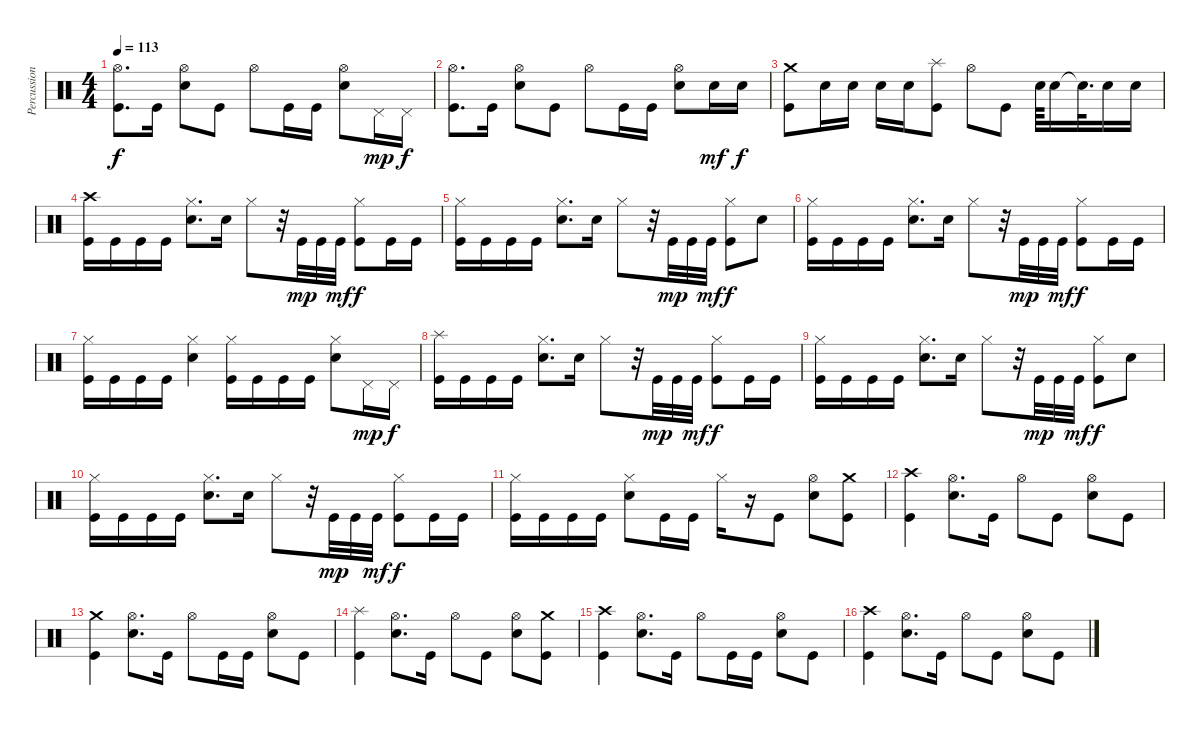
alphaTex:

\track ("Percussioni" "Percussion") {instrument percussion}
\staff {score}
\articulation defaults
\ts (4 4)
\tempo 113
\clef neutral
\ks c
("Hi-Hat (open)" "Kick (hit)").8{d dy f} "Kick (hit)".16 ("Hi-Hat (open)" "Snare (hit) 2").8 "Kick (hit)".8 "Hi-Hat (open)".8 "Kick (hit)".16 "Kick (hit)".16 ("Hi-Hat (open)" "Snare (hit) 2").8 "Pedal Hi-Hat (hit)".16{dy mp} "Pedal Hi-Hat (hit)".16{dy f} |
("Hi-Hat (open)" "Kick (hit)").8{d} "Kick (hit)".16 ("Hi-Hat (open)" "Snare (hit) 2").8 "Kick (hit)".8 "Hi-Hat (open)".8 "Kick (hit)".16 "Kick (hit)".16 ("Hi-Hat (open)" "Snare (hit) 2").8 "Snare (hit) 2".16{dy mf} "Snare (hit) 2".16{dy f} |
("Crash medium (hit)" "Kick (hit)").8 "Snare (hit) 2".16 "Snare (hit) 2".16 "Snare (hit) 2".16 "Snare (hit) 2".16 ("Splash (hit)" "Kick (hit)").8 "Hi-Hat (open)".8 "Kick (hit)".8 "Snare (hit) 2".64 "Snare (hit) 2".16 "Snare (hit)"{t}.32{d} "Snare (hit) 2".16 "Snare (hit) 2".16 |
("Crash high (hit)" "Kick (hit)").16 "Kick (hit)".16 "Kick (hit)".16 "Kick (hit)".16 ("Hi-Hat (closed)" "Snare (hit) 2").8{d} "Snare (hit) 2".16 "Hi-Hat (closed)".8 r.32 "Kick (hit)".32{dy mp} "Kick (hit)".32 "Kick (hit)".32{dy mf} ("Hi-Hat (closed)" "Kick (hit)").8{dy f} "Kick (hit)".16 "Kick (hit)".16 |
("Hi-Hat (closed)" "Kick (hit)").16 "Kick (hit)".16 "Kick (hit)".16 "Kick (hit)".16 ("Hi-Hat (closed)" "Snare (hit) 2").8{d} "Snare (hit) 2".16 "Hi-Hat (closed)".8 r.32 "Kick (hit)".32{dy mp} "Kick (hit)".32 "Kick (hit)".32{dy mf} ("Hi-Hat (closed)" "Kick (hit)").8{dy f} "Snare (hit) 2".8 |
("Hi-Hat (closed)" "Kick (hit)").16 "Kick (hit)".16 "Kick (hit)".16 "Kick (hit)".16 ("Hi-Hat (closed)" "Snare (hit) 2").8{d} "Snare (hit) 2".16 "Hi-Hat (closed)".8 r.32 "Kick (hit)".32{dy mp} "Kick (hit)".32 "Kick (hit)".32{dy mf} ("Hi-Hat (closed)" "Kick (hit)").8{dy f} "Kick (hit)".16 "Kick (hit)".16 |
("Hi-Hat (closed)" "Kick (hit)").16 "Kick (hit)".16 "Kick (hit)".16 "Kick (hit)".16 ("Hi-Hat (closed)" "Snare (hit) 2").4 ("Hi-Hat (closed)" "Kick (hit)").16 "Kick (hit)".16 "Kick (hit)".16 "Kick (hit)".16 ("Hi-Hat (closed)" "Snare (hit) 2").8 "Pedal Hi-Hat (hit)".16{dy mp} "Pedal Hi-Hat (hit)".16{dy f} |
("Splash (hit)" "Kick (hit)").16 "Kick (hit)".16 "Kick (hit)".16 "Kick (hit)".16 ("Hi-Hat (closed)" "Snare (hit) 2").8{d} "Snare (hit) 2".16 "Hi-Hat (closed)".8 r.32 "Kick (hit)".32{dy mp} "Kick (hit)".32 "Kick (hit)".32{dy mf} ("Hi-Hat (closed)" "Kick (hit)").8{dy f} "Kick (hit)".16 "Kick (hit)".16 |
("Hi-Hat (closed)" "Kick (hit)").16 "Kick (hit)".16 "Kick (hit)".16 "Kick (hit)".16 ("Hi-Hat (closed)" "Snare (hit) 2").8{d} "Snare (hit) 2".16 "Hi-Hat (closed)".8 r.32 "Kick (hit)".32{dy mp} "Kick (hit)".32 "Kick (hit)".32{dy mf} ("Hi-Hat (closed)" "Kick (hit)").8{dy f} "Snare (hit) 2".8 |
("Hi-Hat (closed)" "Kick (hit)").16 "Kick (hit)".16 "Kick (hit)".16 "Kick (hit)".16 ("Hi-Hat (closed)" "Snare (hit) 2").8{d} "Snare (hit) 2".16 "Hi-Hat (closed)".8 r.32 "Kick (hit)".32{dy mp} "Kick (hit)".32 "Kick (hit)".32{dy mf} ("Hi-Hat (closed)" "Kick (hit)").8{dy f} "Kick (hit)".16 "Kick (hit)".16 |
("Hi-Hat (closed)" "Kick (hit)").16 "Kick (hit)".16 "Kick (hit)".16 "Kick (hit)".16 ("Hi-Hat (closed)" "Snare (hit) 2").8 "Kick (hit)".16 "Kick (hit)".16 "Hi-Hat (closed)".16 r.16 "Kick (hit)".8 ("Hi-Hat (open)" "Snare (hit) 2").8 ("Crash medium (hit)" "Kick (hit)").8 |
("Crash high (hit)" "Kick (hit)").4 ("Hi-Hat (open)" "Snare (hit) 2").8{d} "Kick (hit)".16 "Hi-Hat (open)".8 "Kick (hit)".8 ("Hi-Hat (open)" "Snare (hit) 2").8 "Kick (hit)".8 |
("Crash medium (hit)" "Kick (hit)").4 ("Hi-Hat (open)" "Snare (hit) 2").8{d} "Kick (hit)".16 "Hi-Hat (open)".8 "Kick (hit)".16 "Kick (hit)".16 ("Hi-Hat (open)" "Snare (hit) 2").8 "Kick (hit)".8 |
("Splash (hit)" "Kick (hit)").4 ("Hi-Hat (open)" "Snare (hit) 2").8{d} "Kick (hit)".16 "Hi-Hat (open)".8 "Kick (hit)".8 ("Hi-Hat (open)" "Snare (hit) 2").8 ("Crash medium (hit)" "Kick (hit)").8 |
("Crash high (hit)" "Kick (hit)").4 ("Hi-Hat (open)" "Snare (hit) 2").8{d} "Kick (hit)".16 "Hi-Hat (open)".8 "Kick (hit)".16 "Kick (hit)".16 ("Hi-Hat (open)" "Snare (hit) 2").8 "Kick (hit)".8 |
("Crash high (hit)" "Kick (hit)").4 ("Hi-Hat (open)" "Snare (hit) 2").8{d} "Kick (hit)".16 "Hi-Hat (open)".8 "Kick (hit)".8 ("Hi-Hat (open)" "Snare (hit) 2").8 "Kick (hit)".8
